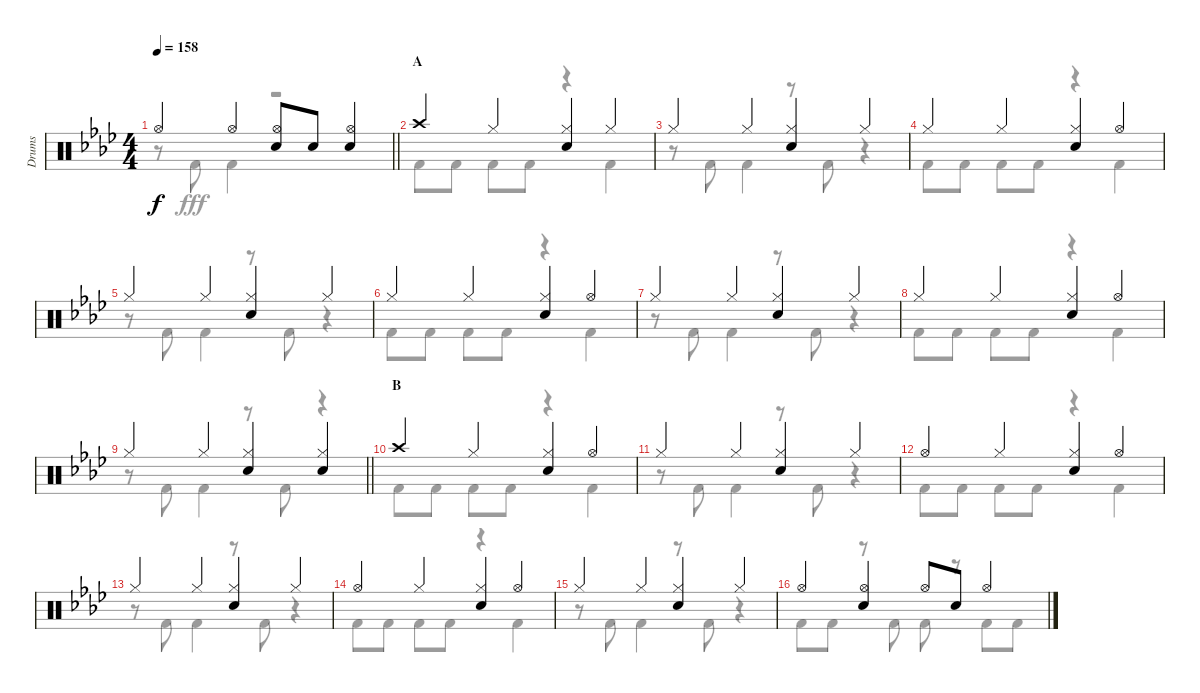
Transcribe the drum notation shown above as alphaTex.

\track ("Drums" "Drums") {instrument percussion}
\staff {score}
\articulation defaults
\voice
\ts (4 4)
\tempo 158
\clef neutral
\barLineRight lightlight
\ks ab "Hi-Hat (open)".4{dy f} "Hi-Hat (open)".4
("Hi-Hat (open)" "Snare (hit) 2").8 "Snare (hit) 2".8 ("Hi-Hat (open)" "Snare (hit) 2").4 |
\section ("" "A")
"Crash high (hit)".4 "Hi-Hat (closed)".4 ("Hi-Hat (closed)" "Snare (hit) 2").4 "Hi-Hat (closed)".4 |
"Hi-Hat (closed)".4 "Hi-Hat (closed)".4 ("Hi-Hat (closed)" "Snare (hit) 2").4 "Hi-Hat (closed)".4 |
"Hi-Hat (closed)".4 "Hi-Hat (closed)".4 ("Hi-Hat (closed)" "Snare (hit) 2").4 "Hi-Hat (open)".4 |
"Hi-Hat (closed)".4 "Hi-Hat (closed)".4 ("Hi-Hat (closed)" "Snare (hit) 2").4 "Hi-Hat (closed)".4 |
"Hi-Hat (closed)".4 "Hi-Hat (closed)".4 ("Hi-Hat (closed)" "Snare (hit) 2").4 "Hi-Hat (open)".4 |
"Hi-Hat (closed)".4 "Hi-Hat (closed)".4 ("Hi-Hat (closed)" "Snare (hit) 2").4 "Hi-Hat (closed)".4 |
"Hi-Hat (closed)".4 "Hi-Hat (closed)".4 ("Hi-Hat (closed)" "Snare (hit) 2").4 "Hi-Hat (open)".4 |
\barLineRight lightlight "Hi-Hat (closed)".4 "Hi-Hat (closed)".4
("Hi-Hat (closed)" "Snare (hit) 2").4 ("Hi-Hat (closed)" "Snare (hit) 2").4 |
\section ("" "B")
"Crash high (hit)".4 "Hi-Hat (closed)".4 ("Hi-Hat (closed)" "Snare (hit) 2").4 "Hi-Hat (open)".4 |
"Hi-Hat (closed)".4 "Hi-Hat (closed)".4 ("Hi-Hat (closed)" "Snare (hit) 2").4 "Hi-Hat (closed)".4 |
"Hi-Hat (open)".4 "Hi-Hat (closed)".4 ("Hi-Hat (closed)" "Snare (hit) 2").4 "Hi-Hat (open)".4 |
"Hi-Hat (closed)".4 "Hi-Hat (closed)".4 ("Hi-Hat (closed)" "Snare (hit) 2").4 "Hi-Hat (closed)".4 |
"Hi-Hat (open)".4 "Hi-Hat (closed)".4 ("Hi-Hat (closed)" "Snare (hit) 2").4 "Hi-Hat (open)".4 |
"Hi-Hat (closed)".4 "Hi-Hat (closed)".4 ("Hi-Hat (closed)" "Snare (hit) 2").4 "Hi-Hat (closed)".4 |
"Hi-Hat (open)".4 ("Hi-Hat (open)" "Snare (hit) 2").4 "Hi-Hat (open)".8 "Snare (hit) 2".8 "Hi-Hat (open)".4
\voice
\clef neutral
\ottava regular
\simile none
\barLineRight lightlight
\ks ab
r.8{dy fff} "Kick (hit) 2".8 "Kick (hit) 2".4 r.2 |
"Kick (hit) 2".8 "Kick (hit) 2".8 "Kick (hit) 2".8 "Kick (hit) 2".8 r.4 "Kick (hit) 2".4 |
r.8 "Kick (hit) 2".8 "Kick (hit) 2".4 r.8 "Kick (hit) 2".8 r.4 |
"Kick (hit) 2".8 "Kick (hit) 2".8 "Kick (hit) 2".8 "Kick (hit) 2".8 r.4 "Kick (hit) 2".4 |
r.8 "Kick (hit) 2".8 "Kick (hit) 2".4 r.8 "Kick (hit) 2".8 r.4 |
"Kick (hit) 2".8 "Kick (hit) 2".8 "Kick (hit) 2".8 "Kick (hit) 2".8 r.4 "Kick (hit) 2".4 |
r.8 "Kick (hit) 2".8 "Kick (hit) 2".4 r.8 "Kick (hit) 2".8 r.4 |
"Kick (hit) 2".8 "Kick (hit) 2".8 "Kick (hit) 2".8 "Kick (hit) 2".8 r.4 "Kick (hit) 2".4 |
\barLineRight lightlight
r.8 "Kick (hit) 2".8 "Kick (hit) 2".4 r.8 "Kick (hit) 2".8 r.4 |
"Kick (hit) 2".8 "Kick (hit) 2".8 "Kick (hit) 2".8 "Kick (hit) 2".8 r.4 "Kick (hit) 2".4 |
r.8 "Kick (hit) 2".8 "Kick (hit) 2".4 r.8 "Kick (hit) 2".8 r.4 |
"Kick (hit) 2".8 "Kick (hit) 2".8 "Kick (hit) 2".8 "Kick (hit) 2".8 r.4 "Kick (hit) 2".4 |
r.8 "Kick (hit) 2".8 "Kick (hit) 2".4 r.8 "Kick (hit) 2".8 r.4 |
"Kick (hit) 2".8 "Kick (hit) 2".8 "Kick (hit) 2".8 "Kick (hit) 2".8 r.4 "Kick (hit) 2".4 |
r.8 "Kick (hit) 2".8 "Kick (hit) 2".4 r.8 "Kick (hit) 2".8 r.4 |
"Kick (hit) 2".8 "Kick (hit) 2".8 r.8 "Kick (hit) 2".8 "Kick (hit) 2".8 r.8 "Kick (hit) 2".8 "Kick (hit) 2".8
